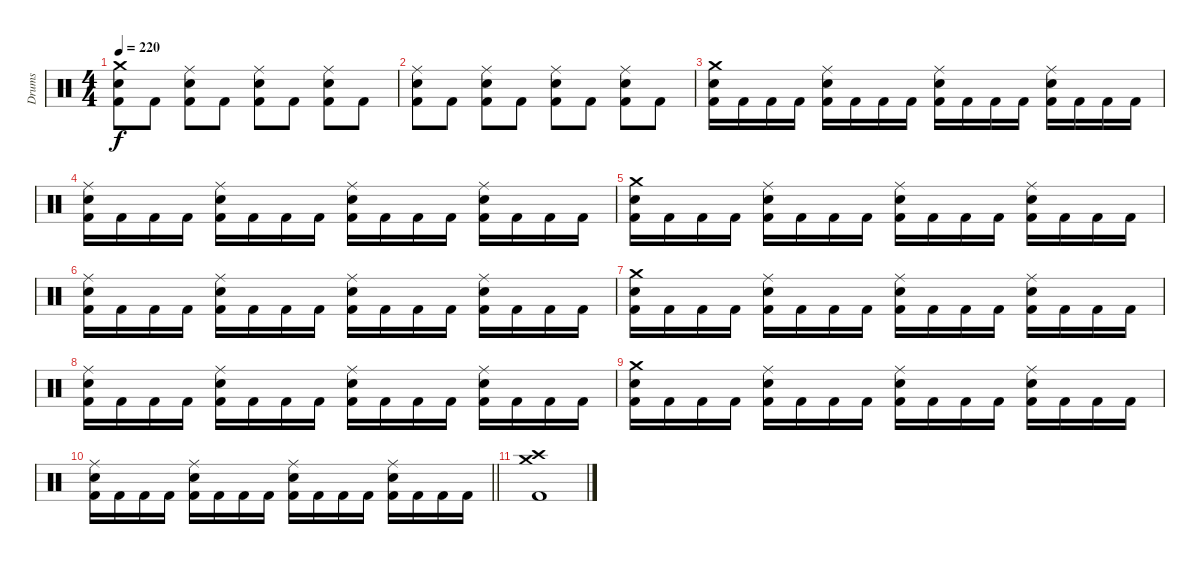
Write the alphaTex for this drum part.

\track ("Drums" "Drums") {instrument percussion}
\staff {score}
\articulation defaults
\ts (4 4)
\tempo 220
\clef neutral
\ks c
("Kick (hit) 2" "Snare (hit) 2" "Crash medium (hit)").8{dy f} "Kick (hit) 2".8 ("Kick (hit) 2" "Snare (hit) 2" "Ride (middle)").8 "Kick (hit) 2".8 ("Kick (hit) 2" "Snare (hit) 2" "Ride (middle)").8 "Kick (hit) 2".8 ("Kick (hit) 2" "Snare (hit) 2" "Ride (middle)").8 "Kick (hit) 2".8 |
("Kick (hit) 2" "Snare (hit) 2" "Ride (middle)").8 "Kick (hit) 2".8 ("Kick (hit) 2" "Snare (hit) 2" "Ride (middle)").8 "Kick (hit) 2".8 ("Kick (hit) 2" "Snare (hit) 2" "Ride (middle)").8 "Kick (hit) 2".8 ("Kick (hit) 2" "Snare (hit) 2" "Ride (middle)").8 "Kick (hit) 2".8 |
("Kick (hit) 2" "Snare (hit) 2" "Crash medium (hit)").16 "Kick (hit) 2".16 "Kick (hit) 2".16 "Kick (hit) 2".16 ("Kick (hit) 2" "Snare (hit) 2" "Ride (middle)").16 "Kick (hit) 2".16 "Kick (hit) 2".16 "Kick (hit) 2".16 ("Kick (hit) 2" "Snare (hit) 2" "Ride (middle)").16 "Kick (hit) 2".16 "Kick (hit) 2".16 "Kick (hit) 2".16 ("Kick (hit) 2" "Snare (hit) 2" "Ride (middle)").16 "Kick (hit) 2".16 "Kick (hit) 2".16 "Kick (hit) 2".16 |
("Kick (hit) 2" "Snare (hit) 2" "Ride (middle)").16 "Kick (hit) 2".16 "Kick (hit) 2".16 "Kick (hit) 2".16 ("Kick (hit) 2" "Snare (hit) 2" "Ride (middle)").16 "Kick (hit) 2".16 "Kick (hit) 2".16 "Kick (hit) 2".16 ("Kick (hit) 2" "Snare (hit) 2" "Ride (middle)").16 "Kick (hit) 2".16 "Kick (hit) 2".16 "Kick (hit) 2".16 ("Kick (hit) 2" "Snare (hit) 2" "Ride (middle)").16 "Kick (hit) 2".16 "Kick (hit) 2".16 "Kick (hit) 2".16 |
("Kick (hit) 2" "Snare (hit) 2" "Crash medium (hit)").16 "Kick (hit) 2".16 "Kick (hit) 2".16 "Kick (hit) 2".16 ("Kick (hit) 2" "Snare (hit) 2" "Ride (middle)").16 "Kick (hit) 2".16 "Kick (hit) 2".16 "Kick (hit) 2".16 ("Kick (hit) 2" "Snare (hit) 2" "Ride (middle)").16 "Kick (hit) 2".16 "Kick (hit) 2".16 "Kick (hit) 2".16 ("Kick (hit) 2" "Snare (hit) 2" "Ride (middle)").16 "Kick (hit) 2".16 "Kick (hit) 2".16 "Kick (hit) 2".16 |
("Kick (hit) 2" "Snare (hit) 2" "Ride (middle)").16 "Kick (hit) 2".16 "Kick (hit) 2".16 "Kick (hit) 2".16 ("Kick (hit) 2" "Snare (hit) 2" "Ride (middle)").16 "Kick (hit) 2".16 "Kick (hit) 2".16 "Kick (hit) 2".16 ("Kick (hit) 2" "Snare (hit) 2" "Ride (middle)").16 "Kick (hit) 2".16 "Kick (hit) 2".16 "Kick (hit) 2".16 ("Kick (hit) 2" "Snare (hit) 2" "Ride (middle)").16 "Kick (hit) 2".16 "Kick (hit) 2".16 "Kick (hit) 2".16 |
("Kick (hit) 2" "Snare (hit) 2" "Crash medium (hit)").16 "Kick (hit) 2".16 "Kick (hit) 2".16 "Kick (hit) 2".16 ("Kick (hit) 2" "Snare (hit) 2" "Ride (middle)").16 "Kick (hit) 2".16 "Kick (hit) 2".16 "Kick (hit) 2".16 ("Kick (hit) 2" "Snare (hit) 2" "Ride (middle)").16 "Kick (hit) 2".16 "Kick (hit) 2".16 "Kick (hit) 2".16 ("Kick (hit) 2" "Snare (hit) 2" "Ride (middle)").16 "Kick (hit) 2".16 "Kick (hit) 2".16 "Kick (hit) 2".16 |
("Kick (hit) 2" "Snare (hit) 2" "Ride (middle)").16 "Kick (hit) 2".16 "Kick (hit) 2".16 "Kick (hit) 2".16 ("Kick (hit) 2" "Snare (hit) 2" "Ride (middle)").16 "Kick (hit) 2".16 "Kick (hit) 2".16 "Kick (hit) 2".16 ("Kick (hit) 2" "Snare (hit) 2" "Ride (middle)").16 "Kick (hit) 2".16 "Kick (hit) 2".16 "Kick (hit) 2".16 ("Kick (hit) 2" "Snare (hit) 2" "Ride (middle)").16 "Kick (hit) 2".16 "Kick (hit) 2".16 "Kick (hit) 2".16 |
("Kick (hit) 2" "Snare (hit) 2" "Crash medium (hit)").16 "Kick (hit) 2".16 "Kick (hit) 2".16 "Kick (hit) 2".16 ("Kick (hit) 2" "Snare (hit) 2" "Ride (middle)").16 "Kick (hit) 2".16 "Kick (hit) 2".16 "Kick (hit) 2".16 ("Kick (hit) 2" "Snare (hit) 2" "Ride (middle)").16 "Kick (hit) 2".16 "Kick (hit) 2".16 "Kick (hit) 2".16 ("Kick (hit) 2" "Snare (hit) 2" "Ride (middle)").16 "Kick (hit) 2".16 "Kick (hit) 2".16 "Kick (hit) 2".16 |
\barLineRight lightlight
("Kick (hit) 2" "Snare (hit) 2" "Ride (middle)").16 "Kick (hit) 2".16 "Kick (hit) 2".16 "Kick (hit) 2".16 ("Kick (hit) 2" "Snare (hit) 2" "Ride (middle)").16 "Kick (hit) 2".16 "Kick (hit) 2".16 "Kick (hit) 2".16 ("Kick (hit) 2" "Snare (hit) 2" "Ride (middle)").16 "Kick (hit) 2".16 "Kick (hit) 2".16 "Kick (hit) 2".16 ("Kick (hit) 2" "Snare (hit) 2" "Ride (middle)").16 "Kick (hit) 2".16 "Kick (hit) 2".16 "Kick (hit) 2".16 |
("Kick (hit) 2" "Crash high (hit)" "Crash medium (hit)").1
